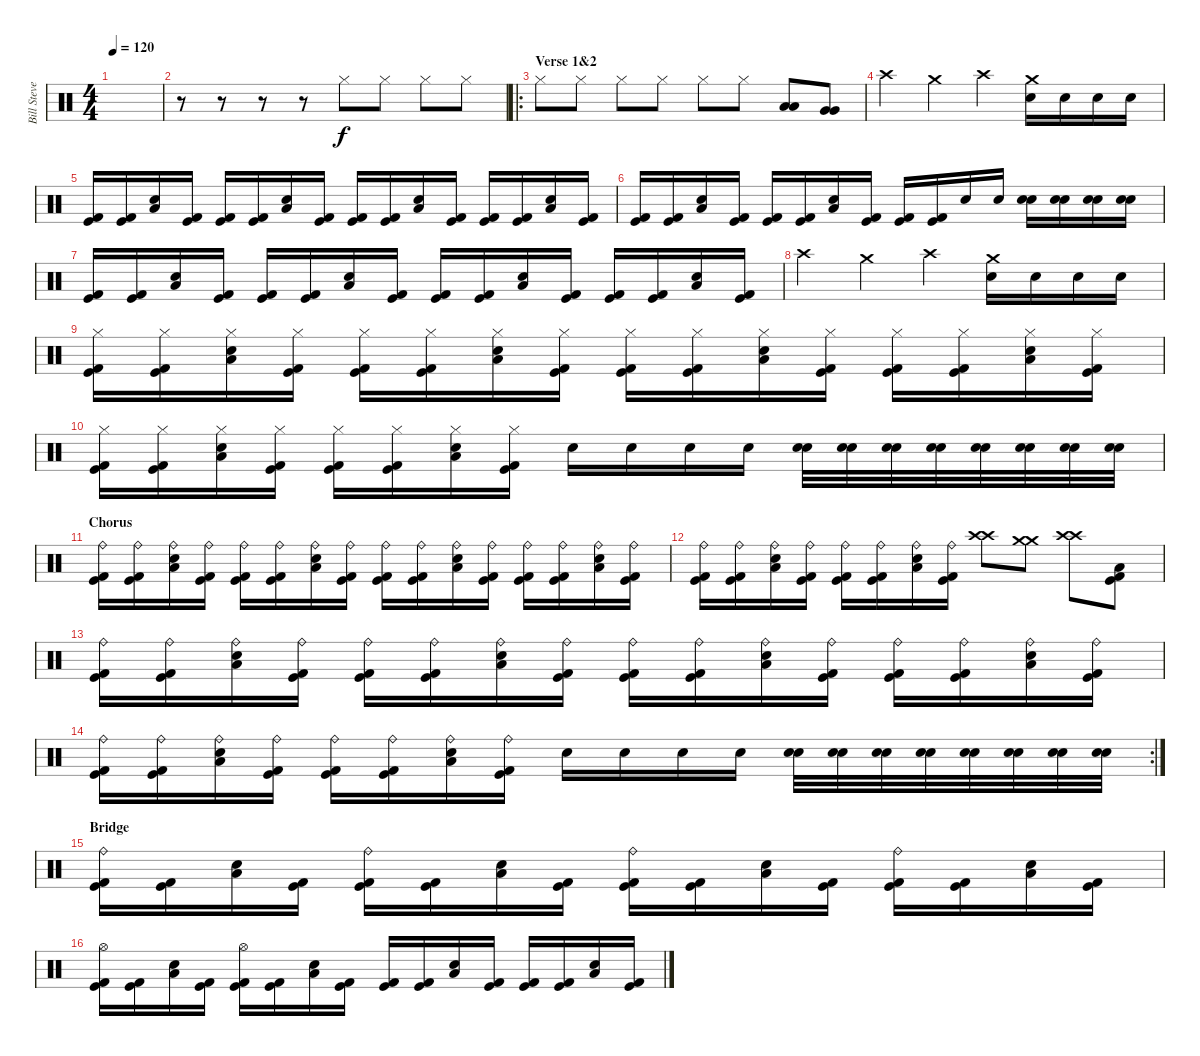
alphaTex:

\track ("Bill Stevenson" "Bill Steve") {instrument percussion}
\staff {score}
\articulation defaults
\ts (4 4)
\tempo 120
\clef neutral
\ks c
|
r.8 r.8 r.8 r.8 "Hi-Hat (closed)".8 "Hi-Hat (closed)".8 "Hi-Hat (closed)".8 "Hi-Hat (closed)".8 |
\ro
\section ("" "Verse 1&2")
"Hi-Hat (closed)".8 "Hi-Hat (closed)".8 "Hi-Hat (closed)".8 "Hi-Hat (closed)".8 "Hi-Hat (closed)".8 "Hi-Hat (closed)".8 ("Low Tom (hit)" "Low Tom (hit)").8 ("Very Low Tom (hit)" "Very Low Tom (hit)").8 |
"Crash high (hit)".4 "Crash medium (hit)".4 "Crash high (hit)".4 ("Crash medium (hit)" "Electric Snare (hit)").16 "Electric Snare (hit)".16 "Electric Snare (hit)".16 "Electric Snare (hit)".16 |
("Kick (hit) 2" "Kick (hit)").16 ("Kick (hit) 2" "Kick (hit)").16 ("Low Tom (hit)" "Electric Snare (hit)").16 ("Kick (hit) 2" "Kick (hit)").16 ("Kick (hit) 2" "Kick (hit)").16 ("Kick (hit) 2" "Kick (hit)").16 ("Low Tom (hit)" "Electric Snare (hit)").16 ("Kick (hit) 2" "Kick (hit)").16 ("Kick (hit) 2" "Kick (hit)").16 ("Kick (hit) 2" "Kick (hit)").16 ("Low Tom (hit)" "Electric Snare (hit)").16 ("Kick (hit) 2" "Kick (hit)").16 ("Kick (hit) 2" "Kick (hit)").16 ("Kick (hit) 2" "Kick (hit)").16 ("Low Tom (hit)" "Electric Snare (hit)").16 ("Kick (hit) 2" "Kick (hit)").16 |
("Kick (hit) 2" "Kick (hit)").16 ("Kick (hit) 2" "Kick (hit)").16 ("Low Tom (hit)" "Electric Snare (hit)").16 ("Kick (hit) 2" "Kick (hit)").16 ("Kick (hit) 2" "Kick (hit)").16 ("Kick (hit) 2" "Kick (hit)").16 ("Low Tom (hit)" "Electric Snare (hit)").16 ("Kick (hit) 2" "Kick (hit)").16 ("Kick (hit) 2" "Kick (hit)").16 ("Kick (hit) 2" "Kick (hit)").16 "Electric Snare (hit)".16 "Electric Snare (hit)".16 ("Electric Snare (hit)" "Electric Snare (hit)").16 ("Electric Snare (hit)" "Electric Snare (hit)").16 ("Electric Snare (hit)" "Electric Snare (hit)").16 ("Electric Snare (hit)" "Electric Snare (hit)").16 |
("Kick (hit) 2" "Kick (hit)").16 ("Kick (hit) 2" "Kick (hit)").16 ("Low Tom (hit)" "Electric Snare (hit)").16 ("Kick (hit) 2" "Kick (hit)").16 ("Kick (hit) 2" "Kick (hit)").16 ("Kick (hit) 2" "Kick (hit)").16 ("Low Tom (hit)" "Electric Snare (hit)").16 ("Kick (hit) 2" "Kick (hit)").16 ("Kick (hit) 2" "Kick (hit)").16 ("Kick (hit) 2" "Kick (hit)").16 ("Low Tom (hit)" "Electric Snare (hit)").16 ("Kick (hit) 2" "Kick (hit)").16 ("Kick (hit) 2" "Kick (hit)").16 ("Kick (hit) 2" "Kick (hit)").16 ("Low Tom (hit)" "Electric Snare (hit)").16 ("Kick (hit) 2" "Kick (hit)").16 |
"Crash high (hit)".4 "Crash medium (hit)".4 "Crash high (hit)".4 ("Crash medium (hit)" "Electric Snare (hit)").16 "Electric Snare (hit)".16 "Electric Snare (hit)".16 "Electric Snare (hit)".16 |
("Hi-Hat (closed)" "Kick (hit) 2" "Kick (hit)").16 ("Hi-Hat (closed)" "Kick (hit) 2" "Kick (hit)").16 ("Hi-Hat (closed)" "Low Tom (hit)" "Electric Snare (hit)").16 ("Hi-Hat (closed)" "Kick (hit) 2" "Kick (hit)").16 ("Hi-Hat (closed)" "Kick (hit) 2" "Kick (hit)").16 ("Hi-Hat (closed)" "Kick (hit) 2" "Kick (hit)").16 ("Hi-Hat (closed)" "Low Tom (hit)" "Electric Snare (hit)").16 ("Hi-Hat (closed)" "Kick (hit) 2" "Kick (hit)").16 ("Hi-Hat (closed)" "Kick (hit) 2" "Kick (hit)").16 ("Hi-Hat (closed)" "Kick (hit) 2" "Kick (hit)").16 ("Hi-Hat (closed)" "Low Tom (hit)" "Electric Snare (hit)").16 ("Hi-Hat (closed)" "Kick (hit) 2" "Kick (hit)").16 ("Hi-Hat (closed)" "Kick (hit) 2" "Kick (hit)").16 ("Hi-Hat (closed)" "Kick (hit) 2" "Kick (hit)").16 ("Hi-Hat (closed)" "Low Tom (hit)" "Electric Snare (hit)").16 ("Hi-Hat (closed)" "Kick (hit) 2" "Kick (hit)").16 |
("Hi-Hat (closed)" "Kick (hit) 2" "Kick (hit)").16 ("Hi-Hat (closed)" "Kick (hit) 2" "Kick (hit)").16 ("Hi-Hat (closed)" "Low Tom (hit)" "Electric Snare (hit)").16 ("Hi-Hat (closed)" "Kick (hit) 2" "Kick (hit)").16 ("Hi-Hat (closed)" "Kick (hit) 2" "Kick (hit)").16 ("Hi-Hat (closed)" "Kick (hit) 2" "Kick (hit)").16 ("Hi-Hat (closed)" "Low Tom (hit)" "Electric Snare (hit)").16 ("Hi-Hat (closed)" "Kick (hit) 2" "Kick (hit)").16 "Electric Snare (hit)".16 "Electric Snare (hit)".16 "Electric Snare (hit)".16 "Electric Snare (hit)".16 ("Electric Snare (hit)" "Electric Snare (hit)").32 ("Electric Snare (hit)" "Electric Snare (hit)").32 ("Electric Snare (hit)" "Electric Snare (hit)").32 ("Electric Snare (hit)" "Electric Snare (hit)").32 ("Electric Snare (hit)" "Electric Snare (hit)").32 ("Electric Snare (hit)" "Electric Snare (hit)").32 ("Electric Snare (hit)" "Electric Snare (hit)").32 ("Electric Snare (hit)" "Electric Snare (hit)").32 |
\section ("" "Chorus")
("Ride (bell)" "Kick (hit) 2" "Kick (hit)").16 ("Ride (bell)" "Kick (hit) 2" "Kick (hit)").16 ("Ride (bell)" "Low Tom (hit)" "Electric Snare (hit)").16 ("Ride (bell)" "Kick (hit) 2" "Kick (hit)").16 ("Ride (bell)" "Kick (hit) 2" "Kick (hit)").16 ("Ride (bell)" "Kick (hit) 2" "Kick (hit)").16 ("Ride (bell)" "Low Tom (hit)" "Electric Snare (hit)").16 ("Ride (bell)" "Kick (hit) 2" "Kick (hit)").16 ("Ride (bell)" "Kick (hit) 2" "Kick (hit)").16 ("Ride (bell)" "Kick (hit) 2" "Kick (hit)").16 ("Ride (bell)" "Low Tom (hit)" "Electric Snare (hit)").16 ("Ride (bell)" "Kick (hit) 2" "Kick (hit)").16 ("Ride (bell)" "Kick (hit) 2" "Kick (hit)").16 ("Ride (bell)" "Kick (hit) 2" "Kick (hit)").16 ("Ride (bell)" "Low Tom (hit)" "Electric Snare (hit)").16 ("Ride (bell)" "Kick (hit) 2" "Kick (hit)").16 |
("Ride (bell)" "Kick (hit) 2" "Kick (hit)").16 ("Ride (bell)" "Kick (hit) 2" "Kick (hit)").16 ("Ride (bell)" "Low Tom (hit)" "Electric Snare (hit)").16 ("Ride (bell)" "Kick (hit) 2" "Kick (hit)").16 ("Ride (bell)" "Kick (hit) 2" "Kick (hit)").16 ("Ride (bell)" "Kick (hit) 2" "Kick (hit)").16 ("Ride (bell)" "Low Tom (hit)" "Electric Snare (hit)").16 ("Ride (bell)" "Kick (hit) 2" "Kick (hit)").16 ("Crash high (hit)" "Crash high (hit)").8 ("Crash medium (hit)" "Crash medium (hit)").8 ("Crash high (hit)" "Crash high (hit)").8 ("Low Floor Tom (hit)" "Kick (hit) 2" "Kick (hit)").8 |
("Ride (bell)" "Kick (hit) 2" "Kick (hit)").16 ("Ride (bell)" "Kick (hit) 2" "Kick (hit)").16 ("Ride (bell)" "Low Tom (hit)" "Electric Snare (hit)").16 ("Ride (bell)" "Kick (hit) 2" "Kick (hit)").16 ("Ride (bell)" "Kick (hit) 2" "Kick (hit)").16 ("Ride (bell)" "Kick (hit) 2" "Kick (hit)").16 ("Ride (bell)" "Low Tom (hit)" "Electric Snare (hit)").16 ("Ride (bell)" "Kick (hit) 2" "Kick (hit)").16 ("Ride (bell)" "Kick (hit) 2" "Kick (hit)").16 ("Ride (bell)" "Kick (hit) 2" "Kick (hit)").16 ("Ride (bell)" "Low Tom (hit)" "Electric Snare (hit)").16 ("Ride (bell)" "Kick (hit) 2" "Kick (hit)").16 ("Ride (bell)" "Kick (hit) 2" "Kick (hit)").16 ("Ride (bell)" "Kick (hit) 2" "Kick (hit)").16 ("Ride (bell)" "Low Tom (hit)" "Electric Snare (hit)").16 ("Ride (bell)" "Kick (hit) 2" "Kick (hit)").16 |
\rc 2
("Ride (bell)" "Kick (hit) 2" "Kick (hit)").16 ("Ride (bell)" "Kick (hit) 2" "Kick (hit)").16 ("Ride (bell)" "Low Tom (hit)" "Electric Snare (hit)").16 ("Ride (bell)" "Kick (hit) 2" "Kick (hit)").16 ("Ride (bell)" "Kick (hit) 2" "Kick (hit)").16 ("Ride (bell)" "Kick (hit) 2" "Kick (hit)").16 ("Ride (bell)" "Low Tom (hit)" "Electric Snare (hit)").16 ("Ride (bell)" "Kick (hit) 2" "Kick (hit)").16 "Electric Snare (hit)".16 "Electric Snare (hit)".16 "Electric Snare (hit)".16 "Electric Snare (hit)".16 ("Electric Snare (hit)" "Electric Snare (hit)").32 ("Electric Snare (hit)" "Electric Snare (hit)").32 ("Electric Snare (hit)" "Electric Snare (hit)").32 ("Electric Snare (hit)" "Electric Snare (hit)").32 ("Electric Snare (hit)" "Electric Snare (hit)").32 ("Electric Snare (hit)" "Electric Snare (hit)").32 ("Electric Snare (hit)" "Electric Snare (hit)").32 ("Electric Snare (hit)" "Electric Snare (hit)").32 |
\section ("" "Bridge")
("Ride (bell)" "Kick (hit) 2" "Kick (hit)").16 ("Kick (hit) 2" "Kick (hit)").16 ("Low Tom (hit)" "Electric Snare (hit)").16 ("Kick (hit) 2" "Kick (hit)").16 ("Ride (bell)" "Kick (hit) 2" "Kick (hit)").16 ("Kick (hit) 2" "Kick (hit)").16 ("Low Tom (hit)" "Electric Snare (hit)").16 ("Kick (hit) 2" "Kick (hit)").16 ("Ride (bell)" "Kick (hit) 2" "Kick (hit)").16 ("Kick (hit) 2" "Kick (hit)").16 ("Low Tom (hit)" "Electric Snare (hit)").16 ("Kick (hit) 2" "Kick (hit)").16 ("Ride (bell)" "Kick (hit) 2" "Kick (hit)").16 ("Kick (hit) 2" "Kick (hit)").16 ("Low Tom (hit)" "Electric Snare (hit)").16 ("Kick (hit) 2" "Kick (hit)").16 |
("Hi-Hat (open)" "Kick (hit) 2" "Kick (hit)").16 ("Kick (hit) 2" "Kick (hit)").16 ("Low Tom (hit)" "Electric Snare (hit)").16 ("Kick (hit) 2" "Kick (hit)").16 ("Hi-Hat (open)" "Kick (hit) 2" "Kick (hit)").16 ("Kick (hit) 2" "Kick (hit)").16 ("Low Tom (hit)" "Electric Snare (hit)").16 ("Kick (hit) 2" "Kick (hit)").16 ("Kick (hit) 2" "Kick (hit)").16 ("Kick (hit) 2" "Kick (hit)").16 ("Low Tom (hit)" "Electric Snare (hit)").16 ("Kick (hit) 2" "Kick (hit)").16 ("Kick (hit) 2" "Kick (hit)").16 ("Kick (hit) 2" "Kick (hit)").16 ("Low Tom (hit)" "Electric Snare (hit)").16 ("Kick (hit) 2" "Kick (hit)").16
